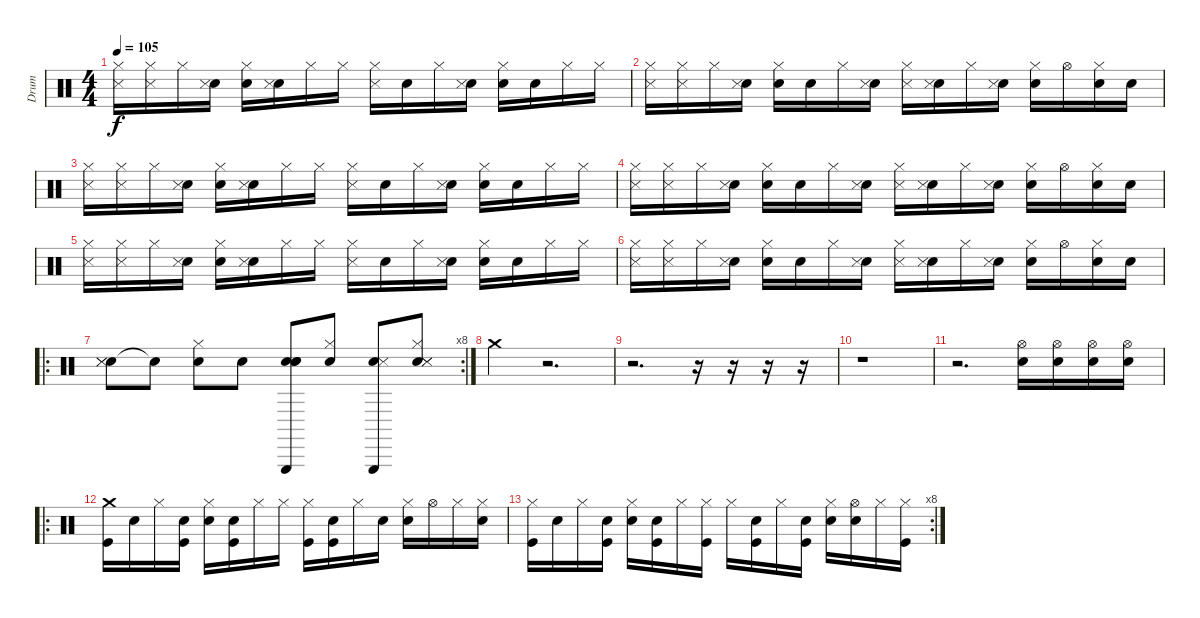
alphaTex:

\track ("Drum" "Drum") {instrument percussion}
\staff {score}
\articulation defaults
\ts (4 4)
\tempo 105
\clef neutral
\ks c
("Hi-Hat (closed)" "Metronome (hit)").16{dy f} ("Hi-Hat (closed)" "Metronome (hit)").16 "Hi-Hat (closed)".16 ("Snare (hit)" "Metronome (hit)").16 ("Hi-Hat (closed)" "Metronome (bell)").16 ("Snare (hit)" "Metronome (hit)").16 "Hi-Hat (closed)".16 "Hi-Hat (closed)".16 ("Hi-Hat (closed)" "Metronome (hit)").16 "Snare (hit)".16 "Hi-Hat (closed)".16 ("Snare (hit)" "Metronome (hit)").16 ("Hi-Hat (closed)" "Metronome (bell)").16 "Snare (hit)".16 "Hi-Hat (closed)".16 "Hi-Hat (closed)".16 |
("Hi-Hat (closed)" "Metronome (hit)").16 ("Hi-Hat (closed)" "Metronome (hit)").16 "Hi-Hat (closed)".16 ("Snare (hit)" "Metronome (hit)").16 ("Hi-Hat (closed)" "Metronome (bell)").16 "Snare (hit)".16 "Hi-Hat (closed)".16 ("Snare (hit)" "Metronome (hit)").16 ("Hi-Hat (closed)" "Metronome (hit)").16 ("Snare (hit)" "Metronome (hit)").16 "Hi-Hat (closed)".16 ("Snare (hit)" "Metronome (hit)").16 ("Hi-Hat (closed)" "Metronome (bell)").16 "Hi-Hat (open)".16 ("Hi-Hat (closed)" "Metronome (bell)").16 "Snare (hit)".16 |
("Hi-Hat (closed)" "Metronome (hit)").16 ("Hi-Hat (closed)" "Metronome (hit)").16 "Hi-Hat (closed)".16 ("Snare (hit)" "Metronome (hit)").16 ("Hi-Hat (closed)" "Metronome (bell)").16 ("Snare (hit)" "Metronome (hit)").16 "Hi-Hat (closed)".16 "Hi-Hat (closed)".16 ("Hi-Hat (closed)" "Metronome (hit)").16 "Snare (hit)".16 "Hi-Hat (closed)".16 ("Snare (hit)" "Metronome (hit)").16 ("Hi-Hat (closed)" "Metronome (bell)").16 "Snare (hit)".16 "Hi-Hat (closed)".16 "Hi-Hat (closed)".16 |
("Hi-Hat (closed)" "Metronome (hit)").16 ("Hi-Hat (closed)" "Metronome (hit)").16 "Hi-Hat (closed)".16 ("Snare (hit)" "Metronome (hit)").16 ("Hi-Hat (closed)" "Metronome (bell)").16 "Snare (hit)".16 "Hi-Hat (closed)".16 ("Snare (hit)" "Metronome (hit)").16 ("Hi-Hat (closed)" "Metronome (hit)").16 ("Snare (hit)" "Metronome (hit)").16 "Hi-Hat (closed)".16 ("Snare (hit)" "Metronome (hit)").16 ("Hi-Hat (closed)" "Metronome (bell)").16 "Hi-Hat (open)".16 ("Hi-Hat (closed)" "Metronome (bell)").16 "Snare (hit)".16 |
("Hi-Hat (closed)" "Metronome (hit)").16 ("Hi-Hat (closed)" "Metronome (hit)").16 "Hi-Hat (closed)".16 ("Snare (hit)" "Metronome (hit)").16 ("Hi-Hat (closed)" "Metronome (bell)").16 ("Snare (hit)" "Metronome (hit)").16 "Hi-Hat (closed)".16 "Hi-Hat (closed)".16 ("Hi-Hat (closed)" "Metronome (hit)").16 "Snare (hit)".16 "Hi-Hat (closed)".16 ("Snare (hit)" "Metronome (hit)").16 ("Hi-Hat (closed)" "Metronome (bell)").16 "Snare (hit)".16 "Hi-Hat (closed)".16 "Hi-Hat (closed)".16 |
("Hi-Hat (closed)" "Metronome (hit)").16 ("Hi-Hat (closed)" "Metronome (hit)").16 "Hi-Hat (closed)".16 ("Snare (hit)" "Metronome (hit)").16 ("Hi-Hat (closed)" "Metronome (bell)").16 "Snare (hit)".16 "Hi-Hat (closed)".16 ("Snare (hit)" "Metronome (hit)").16 ("Hi-Hat (closed)" "Metronome (hit)").16 ("Snare (hit)" "Metronome (hit)").16 "Hi-Hat (closed)".16 ("Snare (hit)" "Metronome (hit)").16 ("Hi-Hat (closed)" "Metronome (bell)").16 "Hi-Hat (open)".16 ("Hi-Hat (closed)" "Metronome (bell)").16 "Snare (hit)".16 |
\ro
\rc 8
("Snare (hit)" "Metronome (hit)" "Metronome (hit)").8 "Snare (hit)"{t}.8 ("Snare (hit)" "Hi-Hat (closed)").8 "Snare (hit)".8 ("Snare (hit)" "Triangle (hit)" "Metronome (bell)" "Metronome (bell)").8 ("Snare (hit)" "Hi-Hat (closed)").8 ("Snare (hit)" "Triangle (hit)" "Metronome (hit)").8 ("Snare (hit)" "Hi-Hat (closed)" "Metronome (hit)" "Metronome (hit)").8 |
"Crash medium (hit)".4 r.2{d} |
r.2{d} r.16 r.16 r.16 r.16 |
r.1 |
r.2{d} ("Hi-Hat (open)" "Snare (hit) 2").16 ("Hi-Hat (open)" "Snare (hit) 2").16 ("Hi-Hat (open)" "Snare (hit) 2").16 ("Hi-Hat (open)" "Snare (hit) 2").16 |
\ro
("Crash medium (hit)" "Kick (hit)").16 "Snare (hit)".16 "Hi-Hat (closed)".16 ("Snare (hit)" "Kick (hit)").16 ("Hi-Hat (closed)" "Snare (hit) 2").16 ("Snare (hit)" "Kick (hit)").16 "Hi-Hat (closed)".16 "Hi-Hat (closed)".16 ("Hi-Hat (closed)" "Kick (hit)").16 ("Snare (hit)" "Kick (hit)").16 "Hi-Hat (closed)".16 "Snare (hit)".16 ("Hi-Hat (closed)" "Snare (hit) 2").16 "Hi-Hat (open)".16 "Hi-Hat (closed)".16 ("Hi-Hat (closed)" "Snare (hit) 2").16 |
\rc 8
("Hi-Hat (closed)" "Kick (hit)").16 "Snare (hit)".16 "Hi-Hat (closed)".16 ("Snare (hit)" "Kick (hit)").16 ("Hi-Hat (closed)" "Snare (hit) 2").16 ("Snare (hit)" "Kick (hit)").16 "Hi-Hat (closed)".16 ("Hi-Hat (closed)" "Kick (hit)").16 "Hi-Hat (closed)".16 ("Snare (hit)" "Kick (hit)").16 "Hi-Hat (closed)".16 ("Snare (hit)" "Kick (hit)").16 ("Hi-Hat (closed)" "Snare (hit) 2").16 ("Hi-Hat (open)" "Snare (hit) 2").16 "Hi-Hat (closed)".16 ("Hi-Hat (closed)" "Kick (hit)").16
